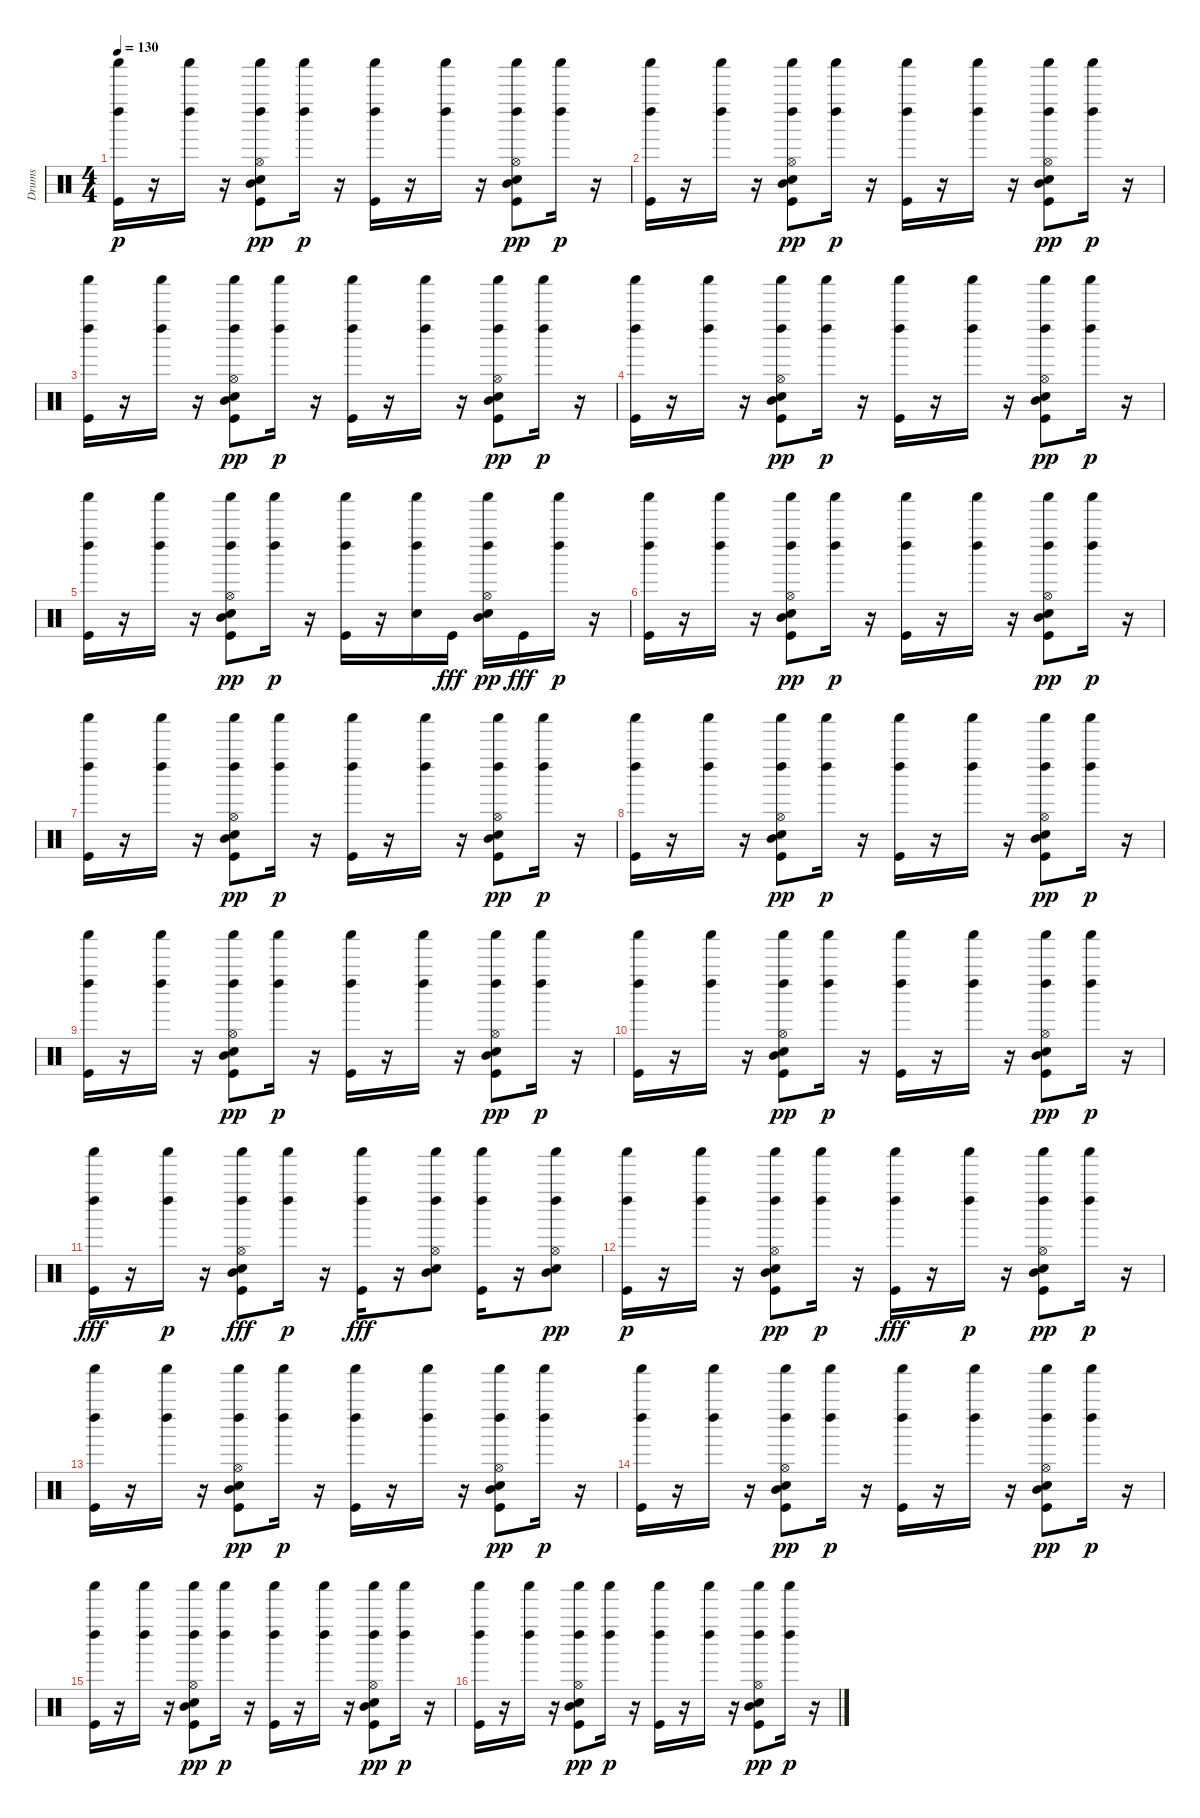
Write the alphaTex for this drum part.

\track ("Drums" "Drums") {instrument percussion}
\staff {score}
\articulation defaults
\ts (4 4)
\tempo 130
\clef neutral
\ks c
("Kick (hit)" "Shaker (hit)" "Left Maraca (hit)").16{dy p} r.16 ("Shaker (hit)" "Left Maraca (hit)").16 r.16 ("Snare (hit) 2" "Kick (hit)" "Shaker (hit)" "Left Maraca (hit)" "Mid Tom (hit)" "Hi-Hat (open)").8{dy pp} ("Shaker (hit)" "Left Maraca (hit)").16{dy p} r.16 ("Kick (hit)" "Shaker (hit)" "Left Maraca (hit)").16 r.16 ("Shaker (hit)" "Left Maraca (hit)").16 r.16 ("Snare (hit) 2" "Kick (hit)" "Shaker (hit)" "Left Maraca (hit)" "Mid Tom (hit)" "Hi-Hat (open)").8{dy pp} ("Shaker (hit)" "Left Maraca (hit)").16{dy p} r.16 |
("Kick (hit)" "Shaker (hit)" "Left Maraca (hit)").16 r.16 ("Shaker (hit)" "Left Maraca (hit)").16 r.16 ("Snare (hit) 2" "Kick (hit)" "Shaker (hit)" "Left Maraca (hit)" "Mid Tom (hit)" "Hi-Hat (open)").8{dy pp} ("Shaker (hit)" "Left Maraca (hit)").16{dy p} r.16 ("Kick (hit)" "Shaker (hit)" "Left Maraca (hit)").16 r.16 ("Shaker (hit)" "Left Maraca (hit)").16 r.16 ("Snare (hit) 2" "Kick (hit)" "Shaker (hit)" "Left Maraca (hit)" "Mid Tom (hit)" "Hi-Hat (open)").8{dy pp} ("Shaker (hit)" "Left Maraca (hit)").16{dy p} r.16 |
("Kick (hit)" "Shaker (hit)" "Left Maraca (hit)").16 r.16 ("Shaker (hit)" "Left Maraca (hit)").16 r.16 ("Snare (hit) 2" "Kick (hit)" "Shaker (hit)" "Left Maraca (hit)" "Mid Tom (hit)" "Hi-Hat (open)").8{dy pp} ("Shaker (hit)" "Left Maraca (hit)").16{dy p} r.16 ("Kick (hit)" "Shaker (hit)" "Left Maraca (hit)").16 r.16 ("Shaker (hit)" "Left Maraca (hit)").16 r.16 ("Snare (hit) 2" "Kick (hit)" "Shaker (hit)" "Left Maraca (hit)" "Mid Tom (hit)" "Hi-Hat (open)").8{dy pp} ("Shaker (hit)" "Left Maraca (hit)").16{dy p} r.16 |
("Kick (hit)" "Shaker (hit)" "Left Maraca (hit)").16 r.16 ("Shaker (hit)" "Left Maraca (hit)").16 r.16 ("Snare (hit) 2" "Kick (hit)" "Shaker (hit)" "Left Maraca (hit)" "Mid Tom (hit)" "Hi-Hat (open)").8{dy pp} ("Shaker (hit)" "Left Maraca (hit)").16{dy p} r.16 ("Kick (hit)" "Shaker (hit)" "Left Maraca (hit)").16 r.16 ("Shaker (hit)" "Left Maraca (hit)").16 r.16 ("Snare (hit) 2" "Kick (hit)" "Shaker (hit)" "Left Maraca (hit)" "Mid Tom (hit)" "Hi-Hat (open)").8{dy pp} ("Shaker (hit)" "Left Maraca (hit)").16{dy p} r.16 |
("Kick (hit)" "Shaker (hit)" "Left Maraca (hit)").16 r.16 ("Shaker (hit)" "Left Maraca (hit)").16 r.16 ("Snare (hit) 2" "Kick (hit)" "Shaker (hit)" "Left Maraca (hit)" "Mid Tom (hit)" "Hi-Hat (open)").8{dy pp} ("Shaker (hit)" "Left Maraca (hit)").16{dy p} r.16 ("Kick (hit)" "Shaker (hit)" "Left Maraca (hit)").16 r.16 ("Snare (hit) 2" "Shaker (hit)" "Left Maraca (hit)").16 "Kick (hit)".16{dy fff} ("Snare (hit) 2" "Shaker (hit)" "Left Maraca (hit)" "Mid Tom (hit)" "Hi-Hat (open)").16{dy pp} "Kick (hit)".16{dy fff} ("Shaker (hit)" "Left Maraca (hit)").16{dy p} r.16 |
("Kick (hit)" "Shaker (hit)" "Left Maraca (hit)").16 r.16 ("Shaker (hit)" "Left Maraca (hit)").16 r.16 ("Snare (hit) 2" "Kick (hit)" "Shaker (hit)" "Left Maraca (hit)" "Mid Tom (hit)" "Hi-Hat (open)").8{dy pp} ("Shaker (hit)" "Left Maraca (hit)").16{dy p} r.16 ("Kick (hit)" "Shaker (hit)" "Left Maraca (hit)").16 r.16 ("Shaker (hit)" "Left Maraca (hit)").16 r.16 ("Snare (hit) 2" "Kick (hit)" "Shaker (hit)" "Left Maraca (hit)" "Mid Tom (hit)" "Hi-Hat (open)").8{dy pp} ("Shaker (hit)" "Left Maraca (hit)").16{dy p} r.16 |
("Kick (hit)" "Shaker (hit)" "Left Maraca (hit)").16 r.16 ("Shaker (hit)" "Left Maraca (hit)").16 r.16 ("Snare (hit) 2" "Kick (hit)" "Shaker (hit)" "Left Maraca (hit)" "Mid Tom (hit)" "Hi-Hat (open)").8{dy pp} ("Shaker (hit)" "Left Maraca (hit)").16{dy p} r.16 ("Kick (hit)" "Shaker (hit)" "Left Maraca (hit)").16 r.16 ("Shaker (hit)" "Left Maraca (hit)").16 r.16 ("Snare (hit) 2" "Kick (hit)" "Shaker (hit)" "Left Maraca (hit)" "Mid Tom (hit)" "Hi-Hat (open)").8{dy pp} ("Shaker (hit)" "Left Maraca (hit)").16{dy p} r.16 |
("Kick (hit)" "Shaker (hit)" "Left Maraca (hit)").16 r.16 ("Shaker (hit)" "Left Maraca (hit)").16 r.16 ("Snare (hit) 2" "Kick (hit)" "Shaker (hit)" "Left Maraca (hit)" "Mid Tom (hit)" "Hi-Hat (open)").8{dy pp} ("Shaker (hit)" "Left Maraca (hit)").16{dy p} r.16 ("Kick (hit)" "Shaker (hit)" "Left Maraca (hit)").16 r.16 ("Shaker (hit)" "Left Maraca (hit)").16 r.16 ("Snare (hit) 2" "Kick (hit)" "Shaker (hit)" "Left Maraca (hit)" "Mid Tom (hit)" "Hi-Hat (open)").8{dy pp} ("Shaker (hit)" "Left Maraca (hit)").16{dy p} r.16 |
("Kick (hit)" "Shaker (hit)" "Left Maraca (hit)").16 r.16 ("Shaker (hit)" "Left Maraca (hit)").16 r.16 ("Snare (hit) 2" "Kick (hit)" "Shaker (hit)" "Left Maraca (hit)" "Mid Tom (hit)" "Hi-Hat (open)").8{dy pp} ("Shaker (hit)" "Left Maraca (hit)").16{dy p} r.16 ("Kick (hit)" "Shaker (hit)" "Left Maraca (hit)").16 r.16 ("Shaker (hit)" "Left Maraca (hit)").16 r.16 ("Snare (hit) 2" "Kick (hit)" "Shaker (hit)" "Left Maraca (hit)" "Mid Tom (hit)" "Hi-Hat (open)").8{dy pp} ("Shaker (hit)" "Left Maraca (hit)").16{dy p} r.16 |
("Kick (hit)" "Shaker (hit)" "Left Maraca (hit)").16 r.16 ("Shaker (hit)" "Left Maraca (hit)").16 r.16 ("Snare (hit) 2" "Kick (hit)" "Shaker (hit)" "Left Maraca (hit)" "Mid Tom (hit)" "Hi-Hat (open)").8{dy pp} ("Shaker (hit)" "Left Maraca (hit)").16{dy p} r.16 ("Kick (hit)" "Shaker (hit)" "Left Maraca (hit)").16 r.16 ("Shaker (hit)" "Left Maraca (hit)").16 r.16 ("Snare (hit) 2" "Kick (hit)" "Shaker (hit)" "Left Maraca (hit)" "Mid Tom (hit)" "Hi-Hat (open)").8{dy pp} ("Shaker (hit)" "Left Maraca (hit)").16{dy p} r.16 |
("Shaker (hit)" "Left Maraca (hit)" "Kick (hit)").16{dy fff} r.16 ("Shaker (hit)" "Left Maraca (hit)").16{dy p} r.16 ("Shaker (hit)" "Left Maraca (hit)" "Kick (hit)" "Mid Tom (hit)" "Hi-Hat (open)" "Snare (hit) 2").8{dy fff} ("Shaker (hit)" "Left Maraca (hit)").16{dy p} r.16 ("Shaker (hit)" "Left Maraca (hit)" "Kick (hit)").16{dy fff} r.16 ("Shaker (hit)" "Left Maraca (hit)" "Mid Tom (hit)" "Hi-Hat (open)" "Snare (hit) 2").8 ("Shaker (hit)" "Left Maraca (hit)" "Kick (hit)").16 r.16 ("Shaker (hit)" "Left Maraca (hit)" "Mid Tom (hit)" "Snare (hit) 2" "Hi-Hat (open)").8{dy pp} |
("Kick (hit)" "Shaker (hit)" "Left Maraca (hit)").16{dy p} r.16 ("Shaker (hit)" "Left Maraca (hit)").16 r.16 ("Snare (hit) 2" "Kick (hit)" "Shaker (hit)" "Left Maraca (hit)" "Mid Tom (hit)" "Hi-Hat (open)").8{dy pp} ("Shaker (hit)" "Left Maraca (hit)").16{dy p} r.16 ("Shaker (hit)" "Left Maraca (hit)" "Kick (hit)").16{dy fff} r.16 ("Shaker (hit)" "Left Maraca (hit)").16{dy p} r.16 ("Snare (hit) 2" "Kick (hit)" "Shaker (hit)" "Left Maraca (hit)" "Mid Tom (hit)" "Hi-Hat (open)").8{dy pp} ("Shaker (hit)" "Left Maraca (hit)").16{dy p} r.16 |
("Kick (hit)" "Shaker (hit)" "Left Maraca (hit)").16 r.16 ("Shaker (hit)" "Left Maraca (hit)").16 r.16 ("Snare (hit) 2" "Kick (hit)" "Shaker (hit)" "Left Maraca (hit)" "Mid Tom (hit)" "Hi-Hat (open)").8{dy pp} ("Shaker (hit)" "Left Maraca (hit)").16{dy p} r.16 ("Kick (hit)" "Shaker (hit)" "Left Maraca (hit)").16 r.16 ("Shaker (hit)" "Left Maraca (hit)").16 r.16 ("Snare (hit) 2" "Kick (hit)" "Shaker (hit)" "Left Maraca (hit)" "Mid Tom (hit)" "Hi-Hat (open)").8{dy pp} ("Shaker (hit)" "Left Maraca (hit)").16{dy p} r.16 |
("Kick (hit)" "Shaker (hit)" "Left Maraca (hit)").16 r.16 ("Shaker (hit)" "Left Maraca (hit)").16 r.16 ("Snare (hit) 2" "Kick (hit)" "Shaker (hit)" "Left Maraca (hit)" "Mid Tom (hit)" "Hi-Hat (open)").8{dy pp} ("Shaker (hit)" "Left Maraca (hit)").16{dy p} r.16 ("Kick (hit)" "Shaker (hit)" "Left Maraca (hit)").16 r.16 ("Shaker (hit)" "Left Maraca (hit)").16 r.16 ("Snare (hit) 2" "Kick (hit)" "Shaker (hit)" "Left Maraca (hit)" "Mid Tom (hit)" "Hi-Hat (open)").8{dy pp} ("Shaker (hit)" "Left Maraca (hit)").16{dy p} r.16 |
("Kick (hit)" "Shaker (hit)" "Left Maraca (hit)").16 r.16 ("Shaker (hit)" "Left Maraca (hit)").16 r.16 ("Snare (hit) 2" "Kick (hit)" "Shaker (hit)" "Left Maraca (hit)" "Mid Tom (hit)" "Hi-Hat (open)").8{dy pp} ("Shaker (hit)" "Left Maraca (hit)").16{dy p} r.16 ("Kick (hit)" "Shaker (hit)" "Left Maraca (hit)").16 r.16 ("Shaker (hit)" "Left Maraca (hit)").16 r.16 ("Snare (hit) 2" "Kick (hit)" "Shaker (hit)" "Left Maraca (hit)" "Mid Tom (hit)" "Hi-Hat (open)").8{dy pp} ("Shaker (hit)" "Left Maraca (hit)").16{dy p} r.16 |
("Kick (hit)" "Shaker (hit)" "Left Maraca (hit)").16 r.16 ("Left Maraca (hit)" "Shaker (hit)").16 r.16 ("Snare (hit) 2" "Kick (hit)" "Left Maraca (hit)" "Shaker (hit)" "Mid Tom (hit)" "Hi-Hat (open)").8{dy pp} ("Left Maraca (hit)" "Shaker (hit)").16{dy p} r.16 ("Kick (hit)" "Left Maraca (hit)" "Shaker (hit)").16 r.16 ("Left Maraca (hit)" "Shaker (hit)").16 r.16 ("Snare (hit) 2" "Kick (hit)" "Left Maraca (hit)" "Shaker (hit)" "Mid Tom (hit)" "Hi-Hat (open)").8{dy pp} ("Shaker (hit)" "Left Maraca (hit)").16{dy p} r.16
